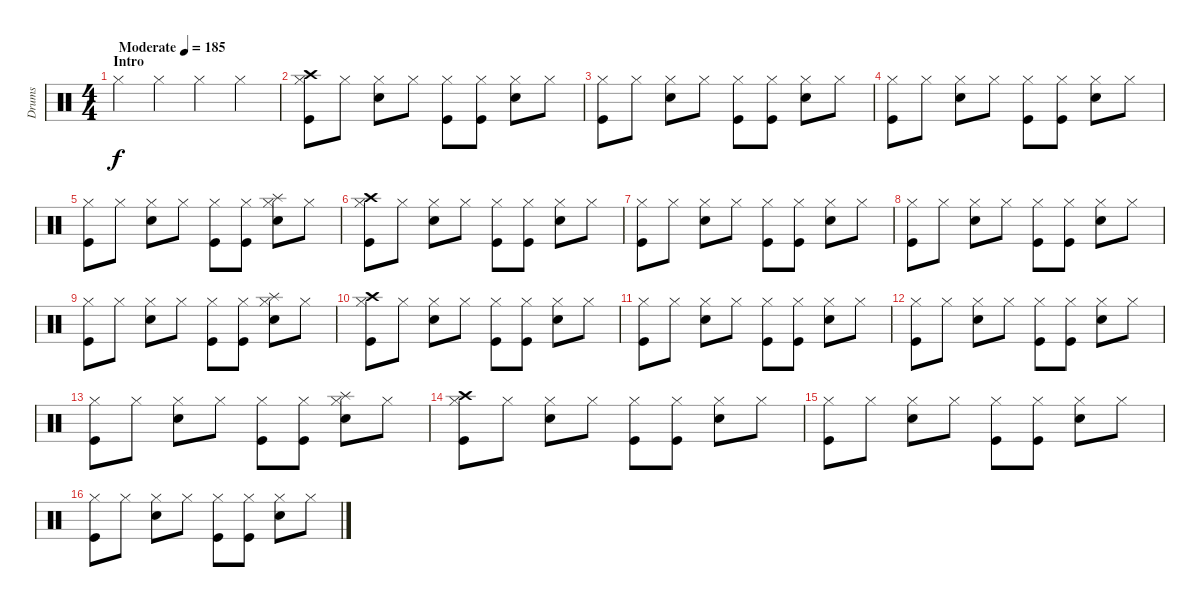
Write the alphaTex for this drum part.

\track ("Drums" "Drums") {instrument percussion}
\staff {score}
\articulation defaults
\ts (4 4)
\section ("" "Intro")
\tempo (185 "Moderate")
\clef neutral
\ks c "Hi-Hat (closed)".4{dy f} "Hi-Hat (closed)".4 "Hi-Hat (closed)".4 "Hi-Hat (closed)".4
|
("Kick (hit)" "Crash high (hit)" "Hi-Hat (closed)").8 "Hi-Hat (closed)".8 ("Snare (hit) 2" "Hi-Hat (closed)").8 "Hi-Hat (closed)".8 ("Kick (hit)" "Hi-Hat (closed)").8 ("Kick (hit)" "Hi-Hat (closed)").8 ("Snare (hit) 2" "Hi-Hat (closed)").8 "Hi-Hat (closed)".8 |
("Kick (hit)" "Hi-Hat (closed)").8 "Hi-Hat (closed)".8 ("Snare (hit) 2" "Hi-Hat (closed)").8 "Hi-Hat (closed)".8 ("Kick (hit)" "Hi-Hat (closed)").8 ("Kick (hit)" "Hi-Hat (closed)").8 ("Snare (hit) 2" "Hi-Hat (closed)").8 "Hi-Hat (closed)".8 |
("Kick (hit)" "Hi-Hat (closed)").8 "Hi-Hat (closed)".8 ("Snare (hit) 2" "Hi-Hat (closed)").8 "Hi-Hat (closed)".8 ("Kick (hit)" "Hi-Hat (closed)").8 ("Kick (hit)" "Hi-Hat (closed)").8 ("Snare (hit) 2" "Hi-Hat (closed)").8 "Hi-Hat (closed)".8 |
("Kick (hit)" "Hi-Hat (closed)").8 "Hi-Hat (closed)".8 ("Snare (hit) 2" "Hi-Hat (closed)").8 "Hi-Hat (closed)".8 ("Kick (hit)" "Hi-Hat (closed)").8 ("Kick (hit)" "Hi-Hat (closed)").8 ("Snare (hit) 2" "Splash (hit)" "Hi-Hat (closed)").8 "Hi-Hat (closed)".8 |
("Kick (hit)" "Crash high (hit)" "Hi-Hat (closed)").8 "Hi-Hat (closed)".8 ("Snare (hit) 2" "Hi-Hat (closed)").8 "Hi-Hat (closed)".8 ("Kick (hit)" "Hi-Hat (closed)").8 ("Kick (hit)" "Hi-Hat (closed)").8 ("Snare (hit) 2" "Hi-Hat (closed)").8 "Hi-Hat (closed)".8 |
("Kick (hit)" "Hi-Hat (closed)").8 "Hi-Hat (closed)".8 ("Snare (hit) 2" "Hi-Hat (closed)").8 "Hi-Hat (closed)".8 ("Kick (hit)" "Hi-Hat (closed)").8 ("Kick (hit)" "Hi-Hat (closed)").8 ("Snare (hit) 2" "Hi-Hat (closed)").8 "Hi-Hat (closed)".8 |
("Kick (hit)" "Hi-Hat (closed)").8 "Hi-Hat (closed)".8 ("Snare (hit) 2" "Hi-Hat (closed)").8 "Hi-Hat (closed)".8 ("Kick (hit)" "Hi-Hat (closed)").8 ("Kick (hit)" "Hi-Hat (closed)").8 ("Snare (hit) 2" "Hi-Hat (closed)").8 "Hi-Hat (closed)".8 |
("Kick (hit)" "Hi-Hat (closed)").8 "Hi-Hat (closed)".8 ("Snare (hit) 2" "Hi-Hat (closed)").8 "Hi-Hat (closed)".8 ("Kick (hit)" "Hi-Hat (closed)").8 ("Kick (hit)" "Hi-Hat (closed)").8 ("Snare (hit) 2" "Splash (hit)" "Hi-Hat (closed)").8 "Hi-Hat (closed)".8 |
("Kick (hit)" "Crash high (hit)" "Hi-Hat (closed)").8 "Hi-Hat (closed)".8 ("Snare (hit) 2" "Hi-Hat (closed)").8 "Hi-Hat (closed)".8 ("Kick (hit)" "Hi-Hat (closed)").8 ("Kick (hit)" "Hi-Hat (closed)").8 ("Snare (hit) 2" "Hi-Hat (closed)").8 "Hi-Hat (closed)".8 |
("Kick (hit)" "Hi-Hat (closed)").8 "Hi-Hat (closed)".8 ("Snare (hit) 2" "Hi-Hat (closed)").8 "Hi-Hat (closed)".8 ("Kick (hit)" "Hi-Hat (closed)").8 ("Kick (hit)" "Hi-Hat (closed)").8 ("Snare (hit) 2" "Hi-Hat (closed)").8 "Hi-Hat (closed)".8 |
("Kick (hit)" "Hi-Hat (closed)").8 "Hi-Hat (closed)".8 ("Snare (hit) 2" "Hi-Hat (closed)").8 "Hi-Hat (closed)".8 ("Kick (hit)" "Hi-Hat (closed)").8 ("Kick (hit)" "Hi-Hat (closed)").8 ("Snare (hit) 2" "Hi-Hat (closed)").8 "Hi-Hat (closed)".8 |
("Kick (hit)" "Hi-Hat (closed)").8 "Hi-Hat (closed)".8 ("Snare (hit) 2" "Hi-Hat (closed)").8 "Hi-Hat (closed)".8 ("Kick (hit)" "Hi-Hat (closed)").8 ("Kick (hit)" "Hi-Hat (closed)").8 ("Snare (hit) 2" "Splash (hit)" "Hi-Hat (closed)").8 "Hi-Hat (closed)".8 |
("Kick (hit)" "Crash high (hit)" "Hi-Hat (closed)").8 "Hi-Hat (closed)".8 ("Snare (hit) 2" "Hi-Hat (closed)").8 "Hi-Hat (closed)".8 ("Kick (hit)" "Hi-Hat (closed)").8 ("Kick (hit)" "Hi-Hat (closed)").8 ("Snare (hit) 2" "Hi-Hat (closed)").8 "Hi-Hat (closed)".8 |
("Kick (hit)" "Hi-Hat (closed)").8 "Hi-Hat (closed)".8 ("Snare (hit) 2" "Hi-Hat (closed)").8 "Hi-Hat (closed)".8 ("Kick (hit)" "Hi-Hat (closed)").8 ("Kick (hit)" "Hi-Hat (closed)").8 ("Snare (hit) 2" "Hi-Hat (closed)").8 "Hi-Hat (closed)".8 |
("Kick (hit)" "Hi-Hat (closed)").8 "Hi-Hat (closed)".8 ("Snare (hit) 2" "Hi-Hat (closed)").8 "Hi-Hat (closed)".8 ("Kick (hit)" "Hi-Hat (closed)").8 ("Kick (hit)" "Hi-Hat (closed)").8 ("Snare (hit) 2" "Hi-Hat (closed)").8 "Hi-Hat (closed)".8
